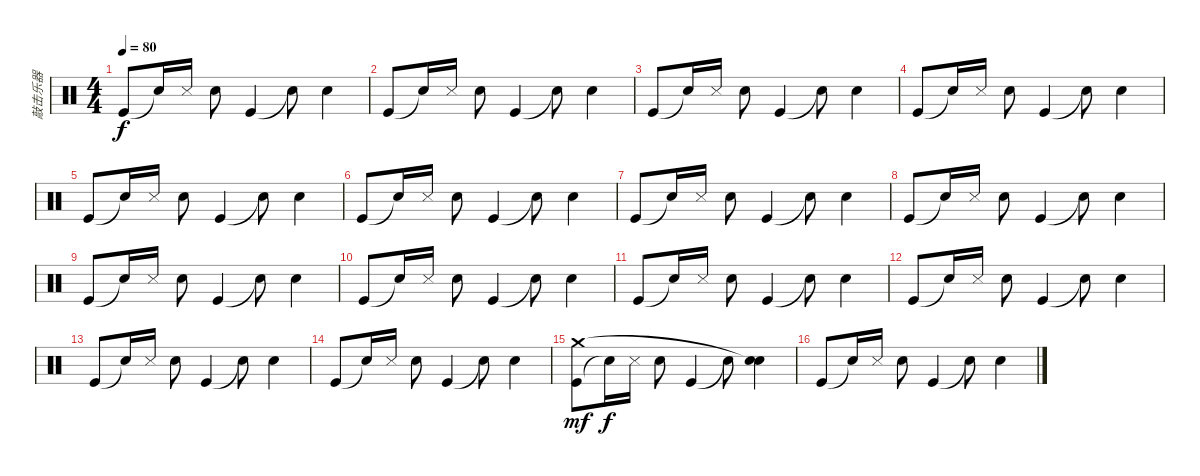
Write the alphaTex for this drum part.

\track ("敲击乐器" "敲击乐器") {instrument percussion}
\staff {score}
\articulation defaults
\ts (4 4)
\tempo 80
\clef neutral
\ks c "Kick (hit)".8{dy f} "Snare (hit)"{t}.16 "Metronome (hit)".16 "Metronome (bell)".8 "Kick (hit)".4 "Snare (hit)"{t}.8 "Metronome (bell)".4
|
"Kick (hit)".8 "Snare (hit)"{t}.16 "Metronome (hit)".16 "Metronome (bell)".8 "Kick (hit)".4 "Snare (hit)"{t}.8 "Metronome (bell)".4 |
"Kick (hit)".8 "Snare (hit)"{t}.16 "Metronome (hit)".16 "Metronome (bell)".8 "Kick (hit)".4 "Snare (hit)"{t}.8 "Metronome (bell)".4 |
"Kick (hit)".8 "Snare (hit)"{t}.16 "Metronome (hit)".16 "Metronome (bell)".8 "Kick (hit)".4 "Snare (hit)"{t}.8 "Metronome (bell)".4 |
"Kick (hit)".8 "Snare (hit)"{t}.16 "Metronome (hit)".16 "Metronome (bell)".8 "Kick (hit)".4 "Snare (hit)"{t}.8 "Metronome (bell)".4 |
"Kick (hit)".8 "Snare (hit)"{t}.16 "Metronome (hit)".16 "Metronome (bell)".8 "Kick (hit)".4 "Snare (hit)"{t}.8 "Metronome (bell)".4 |
"Kick (hit)".8 "Snare (hit)"{t}.16 "Metronome (hit)".16 "Metronome (bell)".8 "Kick (hit)".4 "Snare (hit)"{t}.8 "Metronome (bell)".4 |
"Kick (hit)".8 "Snare (hit)"{t}.16 "Metronome (hit)".16 "Metronome (bell)".8 "Kick (hit)".4 "Snare (hit)"{t}.8 "Metronome (bell)".4 |
"Kick (hit)".8 "Snare (hit)"{t}.16 "Metronome (hit)".16 "Metronome (bell)".8 "Kick (hit)".4 "Snare (hit)"{t}.8 "Metronome (bell)".4 |
"Kick (hit)".8 "Snare (hit)"{t}.16 "Metronome (hit)".16 "Metronome (bell)".8 "Kick (hit)".4 "Snare (hit)"{t}.8 "Metronome (bell)".4 |
"Kick (hit)".8 "Snare (hit)"{t}.16 "Metronome (hit)".16 "Metronome (bell)".8 "Kick (hit)".4 "Snare (hit)"{t}.8 "Metronome (bell)".4 |
"Kick (hit)".8 "Snare (hit)"{t}.16 "Metronome (hit)".16 "Metronome (bell)".8 "Kick (hit)".4 "Snare (hit)"{t}.8 "Metronome (bell)".4 |
"Kick (hit)".8 "Snare (hit)"{t}.16 "Metronome (hit)".16 "Metronome (bell)".8 "Kick (hit)".4 "Snare (hit)"{t}.8 "Metronome (bell)".4 |
"Kick (hit)".8 "Snare (hit)"{t}.16 "Metronome (hit)".16 "Metronome (bell)".8 "Kick (hit)".4 "Snare (hit)"{t}.8 "Metronome (bell)".4 |
("Kick (hit)" "Crash medium (hit)").8{dy mf} "Snare (hit)"{t}.16{dy f} "Metronome (hit)".16 "Metronome (bell)".8 "Kick (hit)".4 "Snare (hit)"{t}.8 ("Metronome (bell)" "Snare (hit)"{t}).4 |
"Kick (hit)".8 "Snare (hit)"{t}.16 "Metronome (hit)".16 "Metronome (bell)".8 "Kick (hit)".4 "Snare (hit)"{t}.8 "Metronome (bell)".4
